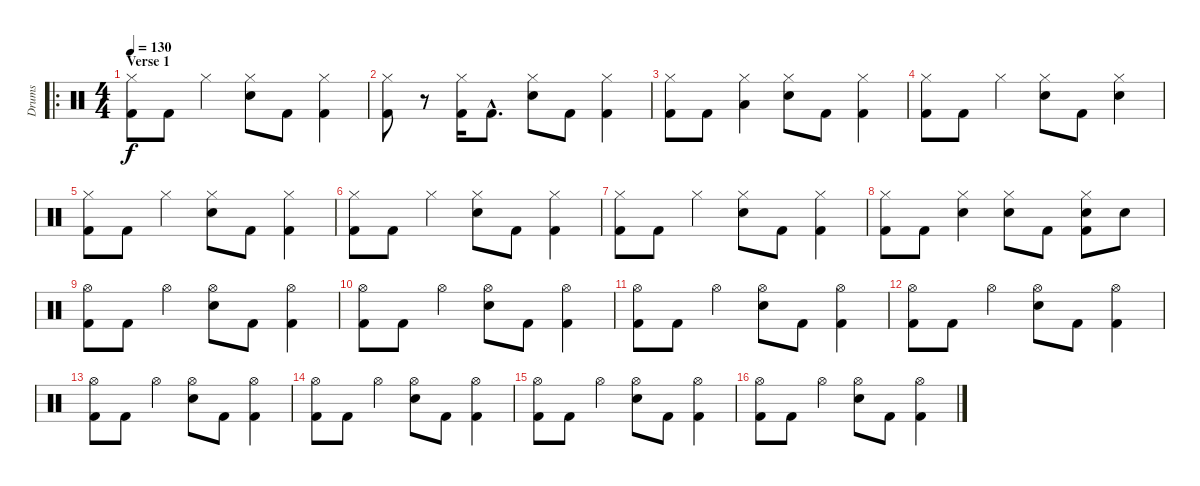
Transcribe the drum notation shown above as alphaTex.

\track ("Drums" "Drums") {instrument percussion}
\staff {score}
\articulation defaults
\ro
\ts (4 4)
\section ("" "Verse 1")
\tempo 130
\clef neutral
\ks c
("Hi-Hat (closed)" "Kick (hit) 2").8{dy f} "Kick (hit) 2".8 "Hi-Hat (closed)".4 ("Hi-Hat (closed)" "Electric Snare (hit)").8 "Kick (hit) 2".8 ("Hi-Hat (closed)" "Kick (hit) 2").4 |
("Hi-Hat (closed)" "Kick (hit) 2").8 r.8 ("Hi-Hat (closed)" "Kick (hit) 2").16 "Kick (hit) 2"{hac}.8{d} ("Hi-Hat (closed)" "Electric Snare (hit)").8 "Kick (hit) 2".8 ("Hi-Hat (closed)" "Kick (hit) 2").4 |
("Hi-Hat (closed)" "Kick (hit) 2").8 "Kick (hit) 2".8 ("Hi-Hat (closed)" "Low Tom (hit)").4 ("Hi-Hat (closed)" "Electric Snare (hit)").8 "Kick (hit) 2".8 ("Hi-Hat (closed)" "Kick (hit) 2").4 |
("Hi-Hat (closed)" "Kick (hit) 2").8 "Kick (hit) 2".8 "Hi-Hat (closed)".4 ("Hi-Hat (closed)" "Electric Snare (hit)").8 "Kick (hit) 2".8 ("Hi-Hat (closed)" "Electric Snare (hit)").4 |
("Hi-Hat (closed)" "Kick (hit) 2").8 "Kick (hit) 2".8 "Hi-Hat (closed)".4 ("Hi-Hat (closed)" "Electric Snare (hit)").8 "Kick (hit) 2".8 ("Hi-Hat (closed)" "Kick (hit) 2").4 |
("Hi-Hat (closed)" "Kick (hit) 2").8 "Kick (hit) 2".8 "Hi-Hat (closed)".4 ("Hi-Hat (closed)" "Electric Snare (hit)").8 "Kick (hit) 2".8 ("Hi-Hat (closed)" "Kick (hit) 2").4 |
("Hi-Hat (closed)" "Kick (hit) 2").8 "Kick (hit) 2".8 "Hi-Hat (closed)".4 ("Hi-Hat (closed)" "Electric Snare (hit)").8 "Kick (hit) 2".8 ("Hi-Hat (closed)" "Kick (hit) 2").4 |
("Hi-Hat (closed)" "Kick (hit) 2").8 "Kick (hit) 2".8 ("Hi-Hat (closed)" "Electric Snare (hit)").4 ("Hi-Hat (closed)" "Electric Snare (hit)").8 "Kick (hit) 2".8 ("Hi-Hat (closed)" "Electric Snare (hit)" "Kick (hit) 2").8 "Electric Snare (hit)".8 |
("Hi-Hat (open)" "Kick (hit) 2").8 "Kick (hit) 2".8 "Hi-Hat (open)".4 ("Hi-Hat (open)" "Electric Snare (hit)").8 "Kick (hit) 2".8 ("Hi-Hat (open)" "Kick (hit) 2").4 |
("Hi-Hat (open)" "Kick (hit) 2").8 "Kick (hit) 2".8 "Hi-Hat (open)".4 ("Hi-Hat (open)" "Electric Snare (hit)").8 "Kick (hit) 2".8 ("Hi-Hat (open)" "Kick (hit) 2").4 |
("Hi-Hat (open)" "Kick (hit) 2").8 "Kick (hit) 2".8 "Hi-Hat (open)".4 ("Hi-Hat (open)" "Electric Snare (hit)").8 "Kick (hit) 2".8 ("Hi-Hat (open)" "Kick (hit) 2").4 |
("Hi-Hat (open)" "Kick (hit) 2").8 "Kick (hit) 2".8 "Hi-Hat (open)".4 ("Hi-Hat (open)" "Electric Snare (hit)").8 "Kick (hit) 2".8 ("Hi-Hat (open)" "Kick (hit) 2").4 |
("Hi-Hat (open)" "Kick (hit) 2").8 "Kick (hit) 2".8 "Hi-Hat (open)".4 ("Hi-Hat (open)" "Electric Snare (hit)").8 "Kick (hit) 2".8 ("Hi-Hat (open)" "Kick (hit) 2").4 |
("Hi-Hat (open)" "Kick (hit) 2").8 "Kick (hit) 2".8 "Hi-Hat (open)".4 ("Hi-Hat (open)" "Electric Snare (hit)").8 "Kick (hit) 2".8 ("Hi-Hat (open)" "Kick (hit) 2").4 |
("Hi-Hat (open)" "Kick (hit) 2").8 "Kick (hit) 2".8 "Hi-Hat (open)".4 ("Hi-Hat (open)" "Electric Snare (hit)").8 "Kick (hit) 2".8 ("Hi-Hat (open)" "Kick (hit) 2").4 |
("Hi-Hat (open)" "Kick (hit) 2").8 "Kick (hit) 2".8 "Hi-Hat (open)".4 ("Hi-Hat (open)" "Electric Snare (hit)").8 "Kick (hit) 2".8 ("Hi-Hat (open)" "Kick (hit) 2").4
